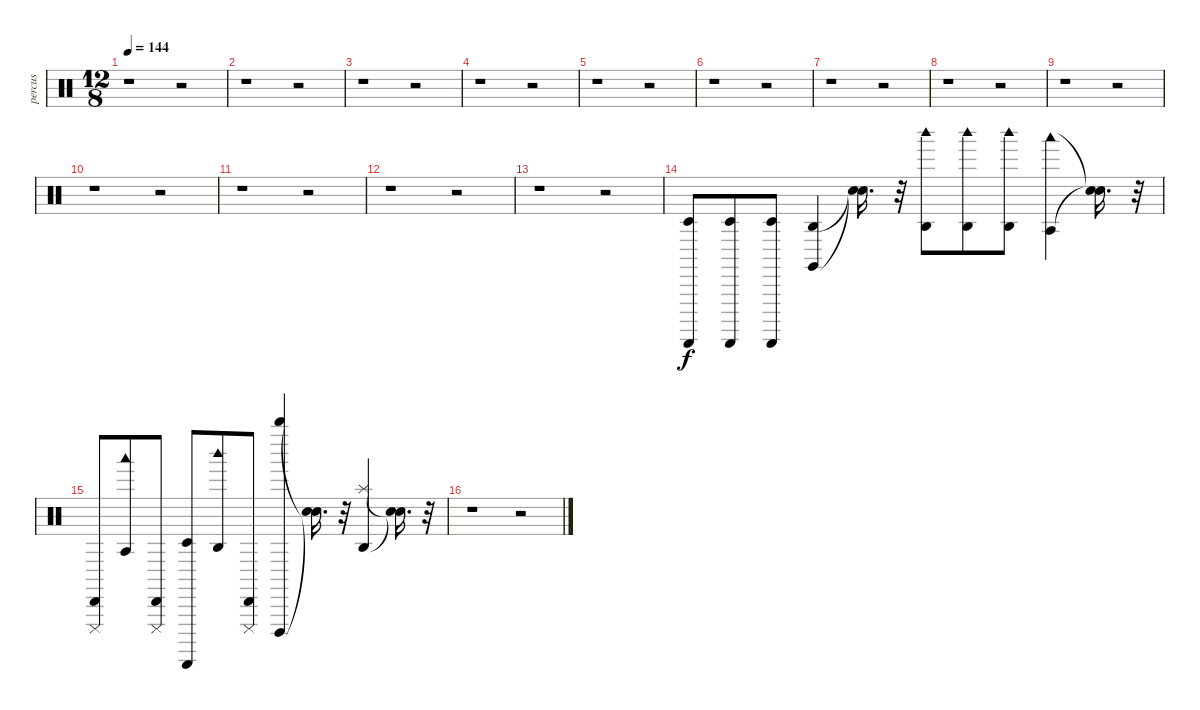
\track ("percus" "percus") {instrument percussion}
\staff {score}
\articulation defaults
\ts (12 8)
\tempo 144
\clef neutral
\ks c
r.1{dy f} r.2 |
r.1 r.2 |
r.1 r.2 |
r.1 r.2 |
r.1 r.2 |
r.1 r.2 |
r.1 r.2 |
r.1 r.2 |
r.1 r.2 |
r.1 r.2 |
r.1 r.2 |
r.1 r.2 |
r.1 r.2 |
("Timbale low (hit)" "Guiro (scrap-return)").8 ("Timbale low (hit)" "Guiro (scrap-return)").8 ("Timbale low (hit)" "Guiro (scrap-return)").8 ("Agogo high (hit)" "Claves (hit)").4 ("Snare (hit)"{t} "Snare (hit)"{t}).16{d} r.32 ("Agogo high (hit)" "Woodblock high (hit)").8 ("Agogo high (hit)" "Woodblock high (hit)").8 ("Agogo high (hit)" "Woodblock high (hit)").8 ("Agogo tow (hit)" "Woodblock low (hit)").4 ("Snare (hit)"{t} "Snare (hit)"{t}).16{d} r.32 |
("Cabasa (hit)" "Cuica (mute)").8 ("Agogo tow (hit)" "Woodblock low (hit)").8 ("Cabasa (hit)" "Cuica (mute)").8 ("Timbale low (hit)" "Guiro (scrap-return)").8 ("Agogo high (hit)" "Woodblock high (hit)").8 ("Cabasa (hit)" "Cuica (mute)").8 ("Whistle high (hit)" "Cuica (open)").4 ("Snare (hit)"{t} "Snare (hit)"{t}).16{d} r.32 ("Splash (hit)" "Agogo high (hit)").4 ("Snare (hit)"{t} "Snare (hit)"{t}).16{d} r.32 |
r.1 r.2
